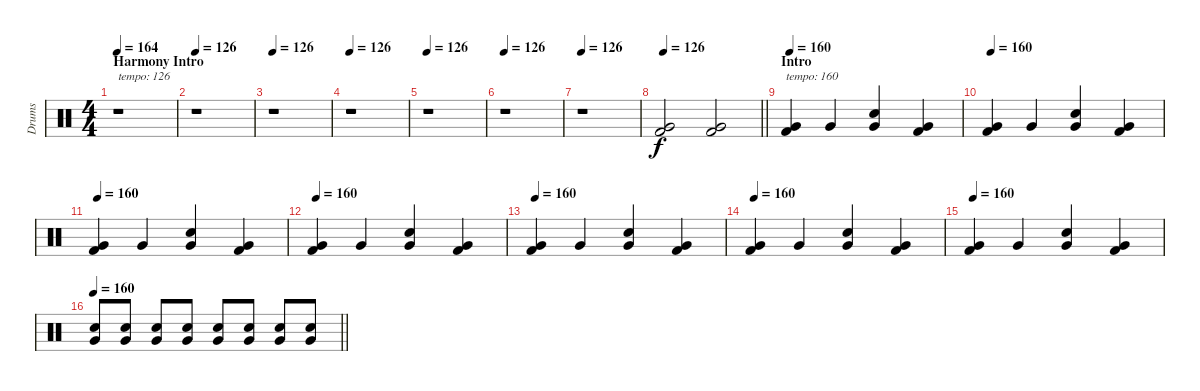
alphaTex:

\track ("Drums" "Drums") {instrument percussion}
\staff {score}
\articulation defaults
\ts (4 4)
\section ("" "Harmony Intro")
\tempo 164
\tempo 126
\tempo 164
\clef neutral
\ks c
r.1{txt "tempo: 126" dy f} |
\tempo 126
r.1 |
\tempo 126
r.1 |
\tempo 126
r.1 |
\tempo 126
r.1 |
\tempo 126
r.1 |
\tempo 126
r.1 |
\tempo 126
\barLineRight lightlight
("Very Low Tom (hit)" "Kick (hit) 2").2 ("Very Low Tom (hit)" "Kick (hit) 2").2 |
\section ("" "Intro")
\tempo 160
("Very Low Tom (hit)" "Kick (hit) 2").4{txt "tempo: 160"} "Very Low Tom (hit)".4 ("Very Low Tom (hit)" "Snare (hit) 2").4 ("Very Low Tom (hit)" "Kick (hit) 2").4 |
\tempo 160
("Very Low Tom (hit)" "Kick (hit) 2").4 "Very Low Tom (hit)".4 ("Very Low Tom (hit)" "Snare (hit) 2").4 ("Very Low Tom (hit)" "Kick (hit) 2").4 |
\tempo 160
("Very Low Tom (hit)" "Kick (hit) 2").4 "Very Low Tom (hit)".4 ("Very Low Tom (hit)" "Snare (hit) 2").4 ("Very Low Tom (hit)" "Kick (hit) 2").4 |
\tempo 160
("Very Low Tom (hit)" "Kick (hit) 2").4 "Very Low Tom (hit)".4 ("Very Low Tom (hit)" "Snare (hit) 2").4 ("Very Low Tom (hit)" "Kick (hit) 2").4 |
\tempo 160
("Very Low Tom (hit)" "Kick (hit) 2").4 "Very Low Tom (hit)".4 ("Very Low Tom (hit)" "Snare (hit) 2").4 ("Very Low Tom (hit)" "Kick (hit) 2").4 |
\tempo 160
("Very Low Tom (hit)" "Kick (hit) 2").4 "Very Low Tom (hit)".4 ("Very Low Tom (hit)" "Snare (hit) 2").4 ("Very Low Tom (hit)" "Kick (hit) 2").4 |
\tempo 160
("Very Low Tom (hit)" "Kick (hit) 2").4 "Very Low Tom (hit)".4 ("Very Low Tom (hit)" "Snare (hit) 2").4 ("Very Low Tom (hit)" "Kick (hit) 2").4 |
\tempo 160
\barLineRight lightlight
("Very Low Tom (hit)" "Snare (hit) 2").8{volume 4} ("Very Low Tom (hit)" "Snare (hit) 2").8 ("Very Low Tom (hit)" "Snare (hit) 2").8{volume 13} ("Very Low Tom (hit)" "Snare (hit) 2").8 ("Very Low Tom (hit)" "Snare (hit) 2").8 ("Very Low Tom (hit)" "Snare (hit) 2").8 ("Very Low Tom (hit)" "Snare (hit) 2").8 ("Very Low Tom (hit)" "Snare (hit) 2").8
